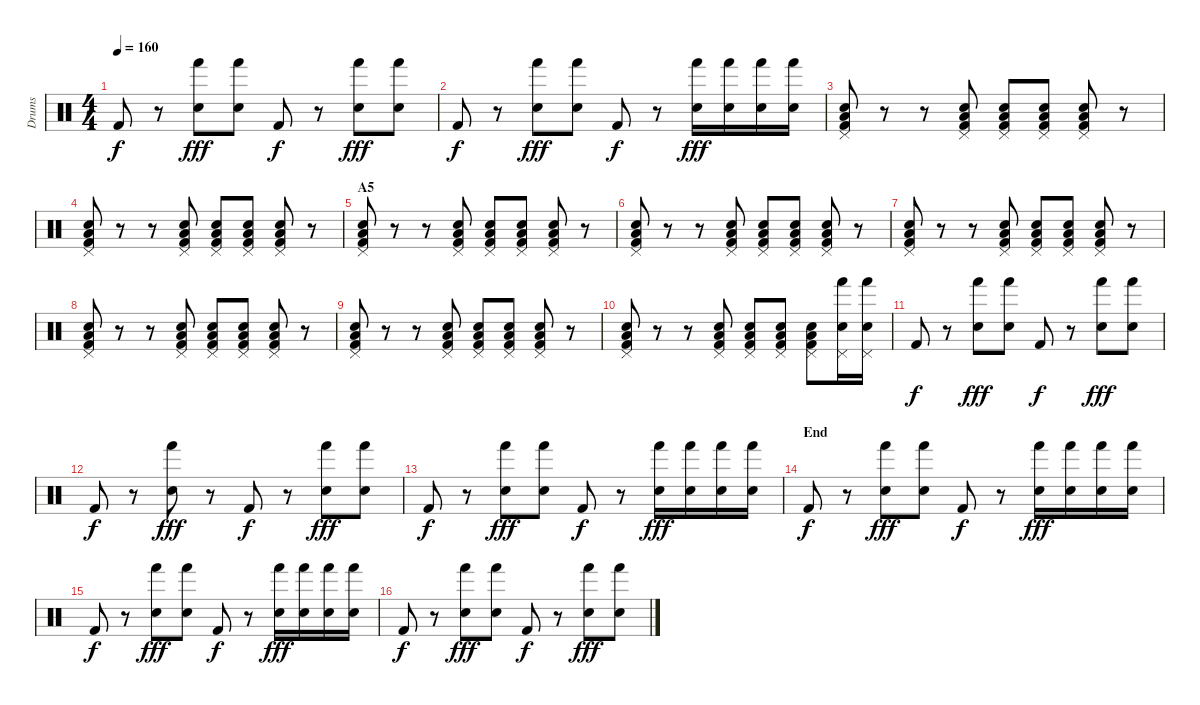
\track ("Drums" "Drums") {instrument percussion}
\staff {score}
\articulation defaults
\ts (4 4)
\tempo 160
\clef neutral
\ks c "Kick (hit) 2".8{dy f}
r.8 ("Hand (hit)" "Electric Snare (hit)").8{dy fff} ("Hand (hit)" "Electric Snare (hit)").8 "Kick (hit) 2".8{dy f} r.8 ("Hand (hit)" "Electric Snare (hit)").8{dy fff} ("Hand (hit)" "Electric Snare (hit)").8 |
"Kick (hit) 2".8{dy f} r.8 ("Hand (hit)" "Electric Snare (hit)").8{dy fff} ("Hand (hit)" "Electric Snare (hit)").8 "Kick (hit) 2".8{dy f} r.8 ("Hand (hit)" "Electric Snare (hit)").16{dy fff} ("Hand (hit)" "Electric Snare (hit)").16 ("Hand (hit)" "Electric Snare (hit)").16 ("Hand (hit)" "Electric Snare (hit)").16 |
("Pedal Hi-Hat (hit)" "Low Tom (hit)" "Electric Snare (hit)" "Kick (hit) 2").8 r.8 r.8 ("Pedal Hi-Hat (hit)" "Low Tom (hit)" "Electric Snare (hit)" "Kick (hit) 2").8 ("Pedal Hi-Hat (hit)" "Low Tom (hit)" "Electric Snare (hit)" "Kick (hit) 2").8 ("Pedal Hi-Hat (hit)" "Low Tom (hit)" "Electric Snare (hit)" "Kick (hit) 2").8 ("Pedal Hi-Hat (hit)" "Low Tom (hit)" "Electric Snare (hit)" "Kick (hit) 2").8 r.8 |
("Pedal Hi-Hat (hit)" "Low Tom (hit)" "Electric Snare (hit)" "Kick (hit) 2").8 r.8 r.8 ("Pedal Hi-Hat (hit)" "Low Tom (hit)" "Electric Snare (hit)" "Kick (hit) 2").8 ("Pedal Hi-Hat (hit)" "Low Tom (hit)" "Electric Snare (hit)" "Kick (hit) 2").8 ("Pedal Hi-Hat (hit)" "Low Tom (hit)" "Electric Snare (hit)" "Kick (hit) 2").8 ("Pedal Hi-Hat (hit)" "Low Tom (hit)" "Electric Snare (hit)" "Kick (hit) 2").8 r.8 |
\section ("" "A5")
("Pedal Hi-Hat (hit)" "Low Tom (hit)" "Electric Snare (hit)" "Kick (hit) 2").8 r.8 r.8 ("Pedal Hi-Hat (hit)" "Low Tom (hit)" "Electric Snare (hit)" "Kick (hit) 2").8 ("Pedal Hi-Hat (hit)" "Low Tom (hit)" "Electric Snare (hit)" "Kick (hit) 2").8 ("Pedal Hi-Hat (hit)" "Low Tom (hit)" "Electric Snare (hit)" "Kick (hit) 2").8 ("Pedal Hi-Hat (hit)" "Low Tom (hit)" "Electric Snare (hit)" "Kick (hit) 2").8 r.8 |
("Pedal Hi-Hat (hit)" "Low Tom (hit)" "Electric Snare (hit)" "Kick (hit) 2").8 r.8 r.8 ("Pedal Hi-Hat (hit)" "Low Tom (hit)" "Electric Snare (hit)" "Kick (hit) 2").8 ("Pedal Hi-Hat (hit)" "Low Tom (hit)" "Electric Snare (hit)" "Kick (hit) 2").8 ("Pedal Hi-Hat (hit)" "Low Tom (hit)" "Electric Snare (hit)" "Kick (hit) 2").8 ("Pedal Hi-Hat (hit)" "Low Tom (hit)" "Electric Snare (hit)" "Kick (hit) 2").8 r.8 |
("Pedal Hi-Hat (hit)" "Low Tom (hit)" "Electric Snare (hit)" "Kick (hit) 2").8 r.8 r.8 ("Pedal Hi-Hat (hit)" "Low Tom (hit)" "Electric Snare (hit)" "Kick (hit) 2").8 ("Pedal Hi-Hat (hit)" "Low Tom (hit)" "Electric Snare (hit)" "Kick (hit) 2").8 ("Pedal Hi-Hat (hit)" "Low Tom (hit)" "Electric Snare (hit)" "Kick (hit) 2").8 ("Pedal Hi-Hat (hit)" "Low Tom (hit)" "Electric Snare (hit)" "Kick (hit) 2").8 r.8 |
("Pedal Hi-Hat (hit)" "Low Tom (hit)" "Electric Snare (hit)" "Kick (hit) 2").8 r.8 r.8 ("Pedal Hi-Hat (hit)" "Low Tom (hit)" "Electric Snare (hit)" "Kick (hit) 2").8 ("Pedal Hi-Hat (hit)" "Low Tom (hit)" "Electric Snare (hit)" "Kick (hit) 2").8 ("Pedal Hi-Hat (hit)" "Low Tom (hit)" "Electric Snare (hit)" "Kick (hit) 2").8 ("Pedal Hi-Hat (hit)" "Low Tom (hit)" "Electric Snare (hit)" "Kick (hit) 2").8 r.8 |
("Pedal Hi-Hat (hit)" "Low Tom (hit)" "Electric Snare (hit)" "Kick (hit) 2").8 r.8 r.8 ("Pedal Hi-Hat (hit)" "Low Tom (hit)" "Electric Snare (hit)" "Kick (hit) 2").8 ("Pedal Hi-Hat (hit)" "Low Tom (hit)" "Electric Snare (hit)" "Kick (hit) 2").8 ("Pedal Hi-Hat (hit)" "Low Tom (hit)" "Electric Snare (hit)" "Kick (hit) 2").8 ("Pedal Hi-Hat (hit)" "Low Tom (hit)" "Electric Snare (hit)" "Kick (hit) 2").8 r.8 |
("Pedal Hi-Hat (hit)" "Low Tom (hit)" "Electric Snare (hit)" "Kick (hit) 2").8 r.8 r.8 ("Pedal Hi-Hat (hit)" "Low Tom (hit)" "Electric Snare (hit)" "Kick (hit) 2").8 ("Pedal Hi-Hat (hit)" "Low Tom (hit)" "Electric Snare (hit)" "Kick (hit) 2").8 ("Pedal Hi-Hat (hit)" "Low Tom (hit)" "Electric Snare (hit)" "Kick (hit) 2").8 ("Pedal Hi-Hat (hit)" "Low Tom (hit)" "Electric Snare (hit)" "Kick (hit) 2").8 ("Pedal Hi-Hat (hit)" "Hand (hit)" "Electric Snare (hit)").16 ("Pedal Hi-Hat (hit)" "Hand (hit)" "Electric Snare (hit)").16 |
"Kick (hit) 2".8{dy f} r.8 ("Hand (hit)" "Electric Snare (hit)").8{dy fff} ("Hand (hit)" "Electric Snare (hit)").8 "Kick (hit) 2".8{dy f} r.8 ("Hand (hit)" "Electric Snare (hit)").8{dy fff} ("Hand (hit)" "Electric Snare (hit)").8 |
"Kick (hit) 2".8{dy f} r.8 ("Hand (hit)" "Electric Snare (hit)").8{dy fff} r.8 "Kick (hit) 2".8{dy f} r.8 ("Hand (hit)" "Electric Snare (hit)").8{dy fff} ("Hand (hit)" "Electric Snare (hit)").8 |
"Kick (hit) 2".8{dy f} r.8 ("Hand (hit)" "Electric Snare (hit)").8{dy fff} ("Hand (hit)" "Electric Snare (hit)").8 "Kick (hit) 2".8{dy f} r.8 ("Hand (hit)" "Electric Snare (hit)").16{dy fff} ("Hand (hit)" "Electric Snare (hit)").16 ("Hand (hit)" "Electric Snare (hit)").16 ("Hand (hit)" "Electric Snare (hit)").16 |
\section ("" "End")
"Kick (hit) 2".8{dy f} r.8 ("Hand (hit)" "Electric Snare (hit)").8{dy fff} ("Hand (hit)" "Electric Snare (hit)").8 "Kick (hit) 2".8{dy f} r.8 ("Hand (hit)" "Electric Snare (hit)").16{dy fff} ("Hand (hit)" "Electric Snare (hit)").16 ("Hand (hit)" "Electric Snare (hit)").16 ("Hand (hit)" "Electric Snare (hit)").16 |
"Kick (hit) 2".8{dy f} r.8 ("Hand (hit)" "Electric Snare (hit)").8{dy fff} ("Hand (hit)" "Electric Snare (hit)").8 "Kick (hit) 2".8{dy f} r.8 ("Hand (hit)" "Electric Snare (hit)").16{dy fff} ("Hand (hit)" "Electric Snare (hit)").16 ("Hand (hit)" "Electric Snare (hit)").16 ("Hand (hit)" "Electric Snare (hit)").16 |
"Kick (hit) 2".8{dy f} r.8 ("Hand (hit)" "Electric Snare (hit)").8{dy fff} ("Hand (hit)" "Electric Snare (hit)").8 "Kick (hit) 2".8{dy f} r.8 ("Hand (hit)" "Electric Snare (hit)").8{dy fff} ("Hand (hit)" "Electric Snare (hit)").8
